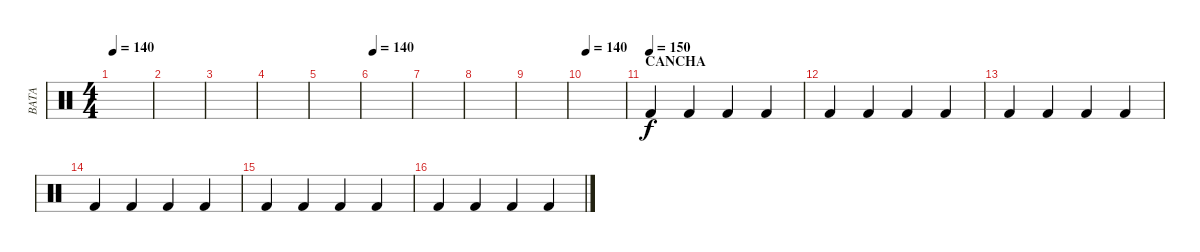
\track ("BATA" "BATA") {instrument percussion}
\staff {score}
\articulation defaults
\ts (4 4)
\tempo 140
\clef neutral
\ks c
|
|
|
|
|
\tempo 140
|
|
|
|
\tempo 140
|
\section ("" "CANCHA")
\tempo (150)
"Kick (hit) 2".4 "Kick (hit) 2".4 "Kick (hit) 2".4 "Kick (hit) 2".4 |
"Kick (hit) 2".4 "Kick (hit) 2".4 "Kick (hit) 2".4 "Kick (hit) 2".4 |
"Kick (hit) 2".4 "Kick (hit) 2".4 "Kick (hit) 2".4 "Kick (hit) 2".4 |
"Kick (hit) 2".4 "Kick (hit) 2".4 "Kick (hit) 2".4 "Kick (hit) 2".4 |
"Kick (hit) 2".4 "Kick (hit) 2".4 "Kick (hit) 2".4 "Kick (hit) 2".4 |
"Kick (hit) 2".4 "Kick (hit) 2".4 "Kick (hit) 2".4 "Kick (hit) 2".4
